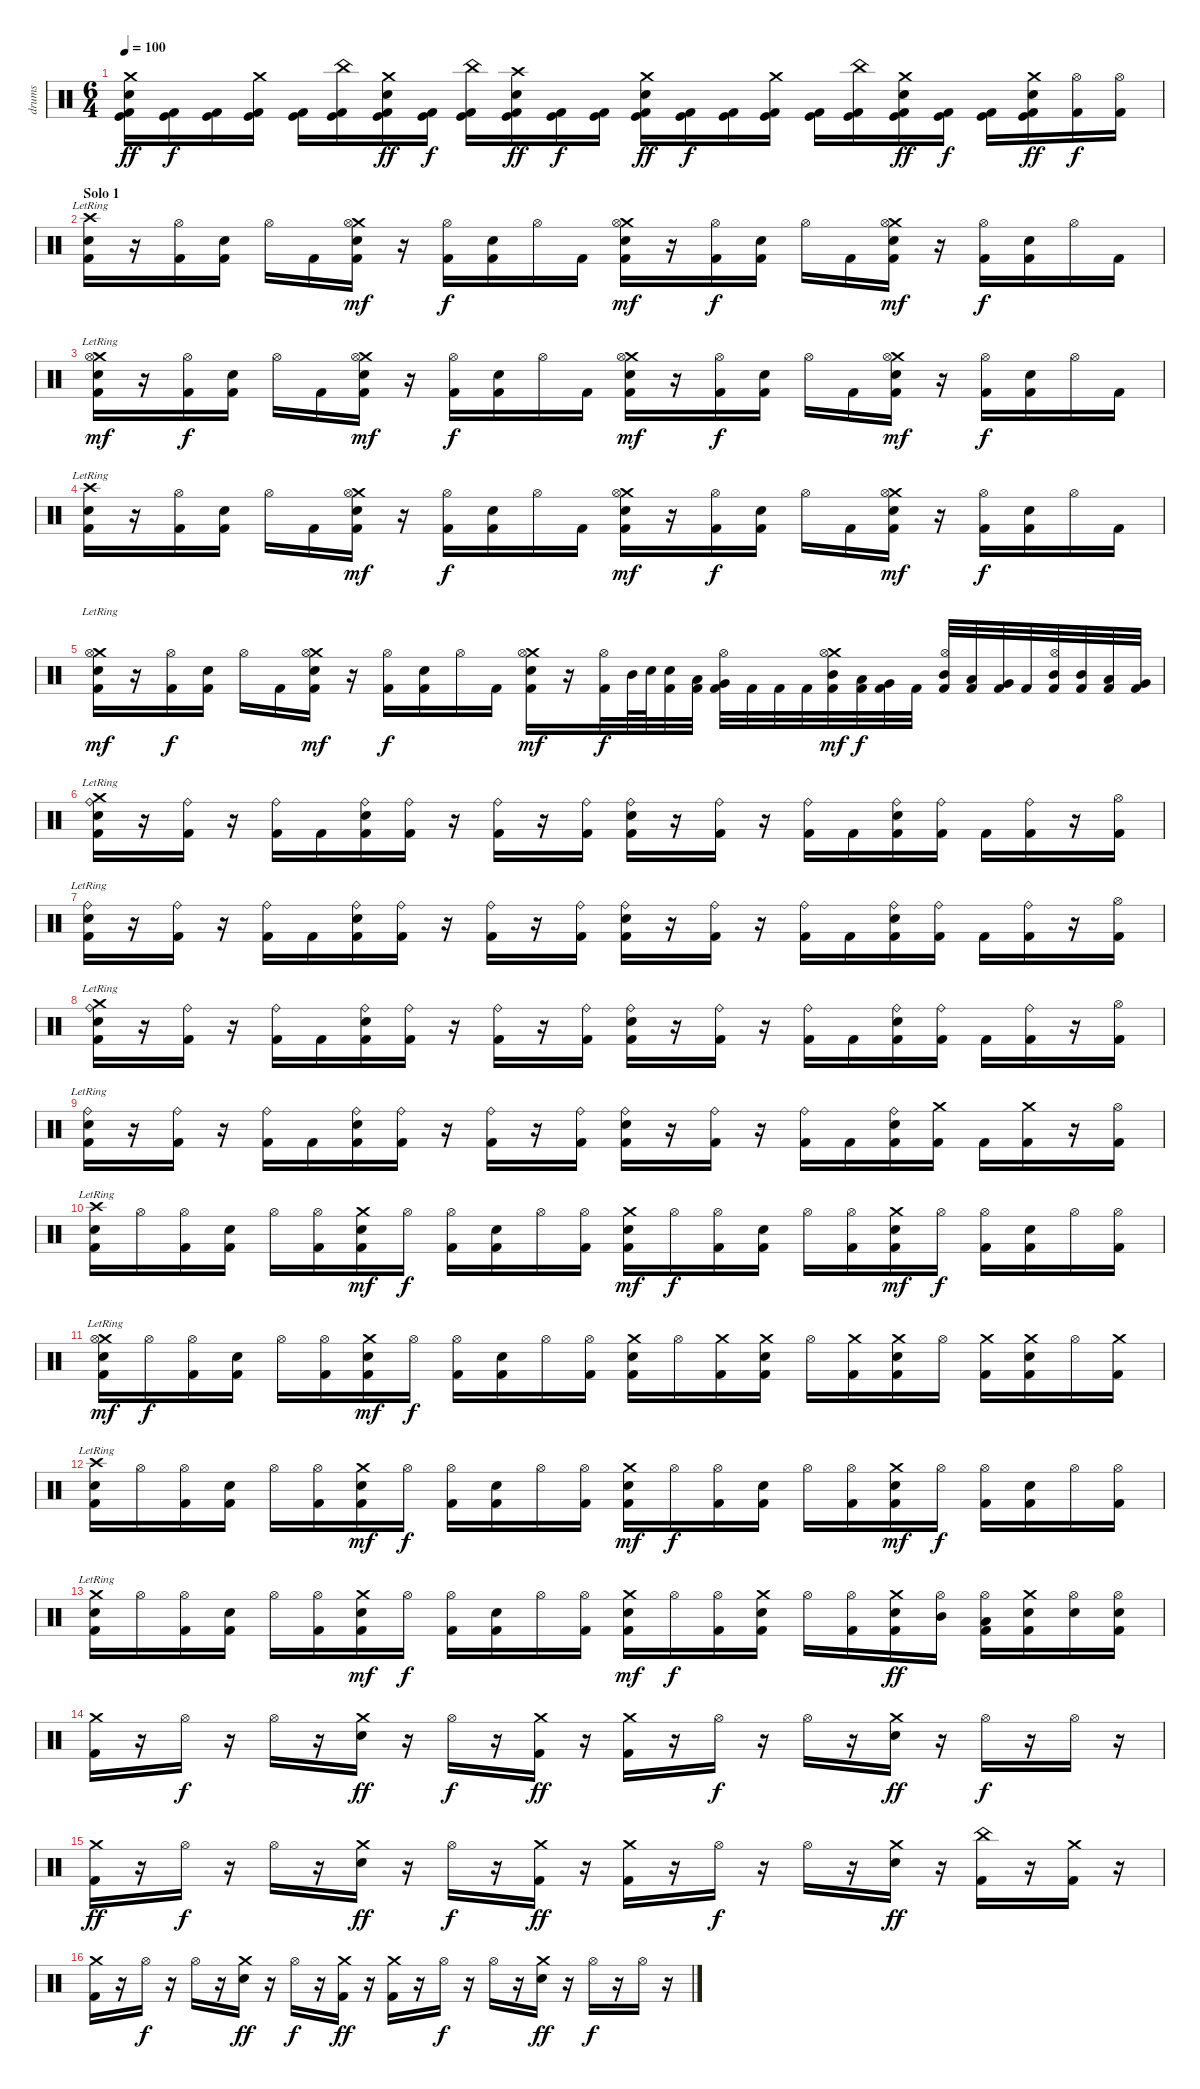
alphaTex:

\track ("drums" "drums") {instrument percussion}
\staff {score}
\articulation defaults
\ts (6 4)
\tempo 100
\clef neutral
\ks c
("Crash medium (hit)" "Electric Snare (hit)" "Kick (hit)" "Kick (hit) 2").16{dy ff} ("Kick (hit)" "Kick (hit) 2").16{dy f} ("Kick (hit)" "Kick (hit) 2").16 ("Crash medium (hit)" "Kick (hit)" "Kick (hit) 2").16 ("Kick (hit)" "Kick (hit) 2").16 ("China (hit)" "Kick (hit)" "Kick (hit) 2").16 ("Crash medium (hit)" "Electric Snare (hit)" "Kick (hit)" "Kick (hit) 2").16{dy ff} ("Kick (hit)" "Kick (hit) 2").16{dy f} ("China (hit)" "Kick (hit)" "Kick (hit) 2").16 ("Crash high (hit)" "Electric Snare (hit)" "Kick (hit)" "Kick (hit) 2").16{dy ff} ("Kick (hit)" "Kick (hit) 2").16{dy f} ("Kick (hit)" "Kick (hit) 2").16 ("Crash medium (hit)" "Electric Snare (hit)" "Kick (hit)" "Kick (hit) 2").16{dy ff} ("Kick (hit)" "Kick (hit) 2").16{dy f} ("Kick (hit)" "Kick (hit) 2").16 ("Crash medium (hit)" "Kick (hit)" "Kick (hit) 2").16 ("Kick (hit)" "Kick (hit) 2").16 ("China (hit)" "Kick (hit)" "Kick (hit) 2").16 ("Crash medium (hit)" "Electric Snare (hit)" "Kick (hit)" "Kick (hit) 2").16{dy ff} ("Kick (hit)" "Kick (hit) 2").16{dy f} ("Kick (hit)" "Kick (hit) 2").16 ("Crash medium (hit)" "Electric Snare (hit)" "Kick (hit)" "Kick (hit) 2").16{dy ff} ("Hi-Hat (open)" "Kick (hit) 2").16{dy f} ("Hi-Hat (open)" "Kick (hit) 2").16 |
\section ("" "Solo 1")
("Crash high (hit)"{lr} "Snare (hit) 2" "Kick (hit) 2").16 r.16 ("Hi-Hat (open)" "Kick (hit) 2").16 ("Electric Snare (hit)" "Kick (hit) 2").16 "Hi-Hat (open)".16 "Kick (hit) 2".16 ("Crash medium (hit)" "Hi-Hat (open)" "Snare (hit) 2" "Kick (hit) 2").16{dy mf} r.16 ("Hi-Hat (open)" "Kick (hit) 2").16{dy f} ("Electric Snare (hit)" "Kick (hit) 2").16 "Hi-Hat (open)".16 "Kick (hit) 2".16 ("Crash medium (hit)" "Hi-Hat (open)" "Snare (hit) 2" "Kick (hit) 2").16{dy mf} r.16 ("Hi-Hat (open)" "Kick (hit) 2").16{dy f} ("Electric Snare (hit)" "Kick (hit) 2").16 "Hi-Hat (open)".16 "Kick (hit) 2".16 ("Crash medium (hit)" "Hi-Hat (open)" "Snare (hit) 2" "Kick (hit) 2").16{dy mf} r.16 ("Hi-Hat (open)" "Kick (hit) 2").16{dy f} ("Electric Snare (hit)" "Kick (hit) 2").16 "Hi-Hat (open)".16 "Kick (hit) 2".16 |
("Crash medium (hit)"{lr} "Hi-Hat (open)" "Snare (hit) 2" "Kick (hit) 2").16{dy mf} r.16 ("Hi-Hat (open)" "Kick (hit) 2").16{dy f} ("Electric Snare (hit)" "Kick (hit) 2").16 "Hi-Hat (open)".16 "Kick (hit) 2".16 ("Crash medium (hit)" "Hi-Hat (open)" "Snare (hit) 2" "Kick (hit) 2").16{dy mf} r.16 ("Hi-Hat (open)" "Kick (hit) 2").16{dy f} ("Electric Snare (hit)" "Kick (hit) 2").16 "Hi-Hat (open)".16 "Kick (hit) 2".16 ("Crash medium (hit)" "Hi-Hat (open)" "Snare (hit) 2" "Kick (hit) 2").16{dy mf} r.16 ("Hi-Hat (open)" "Kick (hit) 2").16{dy f} ("Electric Snare (hit)" "Kick (hit) 2").16 "Hi-Hat (open)".16 "Kick (hit) 2".16 ("Crash medium (hit)" "Hi-Hat (open)" "Snare (hit) 2" "Kick (hit) 2").16{dy mf} r.16 ("Hi-Hat (open)" "Kick (hit) 2").16{dy f} ("Electric Snare (hit)" "Kick (hit) 2").16 "Hi-Hat (open)".16 "Kick (hit) 2".16 |
("Crash high (hit)"{lr} "Snare (hit) 2" "Kick (hit) 2").16 r.16 ("Hi-Hat (open)" "Kick (hit) 2").16 ("Electric Snare (hit)" "Kick (hit) 2").16 "Hi-Hat (open)".16 "Kick (hit) 2".16 ("Crash medium (hit)" "Hi-Hat (open)" "Snare (hit) 2" "Kick (hit) 2").16{dy mf} r.16 ("Hi-Hat (open)" "Kick (hit) 2").16{dy f} ("Electric Snare (hit)" "Kick (hit) 2").16 "Hi-Hat (open)".16 "Kick (hit) 2".16 ("Crash medium (hit)" "Hi-Hat (open)" "Snare (hit) 2" "Kick (hit) 2").16{dy mf} r.16 ("Hi-Hat (open)" "Kick (hit) 2").16{dy f} ("Electric Snare (hit)" "Kick (hit) 2").16 "Hi-Hat (open)".16 "Kick (hit) 2".16 ("Crash medium (hit)" "Hi-Hat (open)" "Snare (hit) 2" "Kick (hit) 2").16{dy mf} r.16 ("Hi-Hat (open)" "Kick (hit) 2").16{dy f} ("Electric Snare (hit)" "Kick (hit) 2").16 "Hi-Hat (open)".16 "Kick (hit) 2".16 |
("Crash medium (hit)"{lr} "Hi-Hat (open)" "Snare (hit) 2" "Kick (hit) 2").16{dy mf} r.16 ("Hi-Hat (open)" "Kick (hit) 2").16{dy f} ("Electric Snare (hit)" "Kick (hit) 2").16 "Hi-Hat (open)".16 "Kick (hit) 2".16 ("Crash medium (hit)" "Hi-Hat (open)" "Snare (hit) 2" "Kick (hit) 2").16{dy mf} r.16 ("Hi-Hat (open)" "Kick (hit) 2").16{dy f} ("Electric Snare (hit)" "Kick (hit) 2").16 "Hi-Hat (open)".16 "Kick (hit) 2".16 ("Crash medium (hit)" "Hi-Hat (open)" "Snare (hit) 2" "Kick (hit) 2").16{dy mf} r.16 ("Hi-Hat (open)" "Kick (hit) 2").32{dy f} "Mid Tom (hit)".64 "Electric Snare (hit)".64 ("Electric Snare (hit)" "Kick (hit) 2").32 ("Low Tom (hit)" "Kick (hit) 2").32 ("Hi-Hat (open)" "Very Low Tom (hit)" "Kick (hit) 2").32 "Kick (hit) 2".32 "Kick (hit) 2".32 "Kick (hit) 2".32 ("Crash medium (hit)" "Hi-Hat (open)" "Mid Tom (hit)" "Kick (hit) 2").32{dy mf} ("Low Tom (hit)" "Kick (hit) 2").32{dy f} ("Very Low Tom (hit)" "Kick (hit) 2").32 "Kick (hit) 2".32 ("Hi-Hat (open)" "Mid Tom (hit)" "Kick (hit) 2").32 ("Low Tom (hit)" "Kick (hit) 2").32 ("Very Low Tom (hit)" "Kick (hit) 2").32 "Kick (hit) 2".32 ("Hi-Hat (open)" "Mid Tom (hit)" "Kick (hit) 2").32 ("Mid Tom (hit)" "Kick (hit) 2").32 ("Low Tom (hit)" "Kick (hit) 2").32 ("Very Low Tom (hit)" "Kick (hit) 2").32 |
("Ride (bell)"{lr} "Crash medium (hit)" "Snare (hit) 2" "Kick (hit) 2").16 r.16 ("Ride (bell)" "Kick (hit) 2").16 r.16 ("Ride (bell)" "Kick (hit) 2").16 "Kick (hit) 2".16 ("Ride (bell)" "Electric Snare (hit)" "Kick (hit) 2").16 ("Ride (bell)" "Kick (hit) 2").16 r.16 ("Ride (bell)" "Kick (hit) 2").16 r.16 ("Ride (bell)" "Kick (hit) 2").16 ("Ride (bell)" "Snare (hit) 2" "Kick (hit) 2").16 r.16 ("Ride (bell)" "Kick (hit) 2").16 r.16 ("Ride (bell)" "Kick (hit) 2").16 "Kick (hit) 2".16 ("Ride (bell)" "Electric Snare (hit)" "Kick (hit) 2").16 ("Ride (bell)" "Kick (hit) 2").16 "Kick (hit) 2".16 ("Ride (bell)" "Kick (hit) 2").16 r.16 ("Hi-Hat (open)" "Kick (hit) 2").16 |
("Ride (bell)"{lr} "Snare (hit) 2" "Kick (hit) 2").16 r.16 ("Ride (bell)" "Kick (hit) 2").16 r.16 ("Ride (bell)" "Kick (hit) 2").16 "Kick (hit) 2".16 ("Ride (bell)" "Electric Snare (hit)" "Kick (hit) 2").16 ("Ride (bell)" "Kick (hit) 2").16 r.16 ("Ride (bell)" "Kick (hit) 2").16 r.16 ("Ride (bell)" "Kick (hit) 2").16 ("Ride (bell)" "Snare (hit) 2" "Kick (hit) 2").16 r.16 ("Ride (bell)" "Kick (hit) 2").16 r.16 ("Ride (bell)" "Kick (hit) 2").16 "Kick (hit) 2".16 ("Ride (bell)" "Electric Snare (hit)" "Kick (hit) 2").16 ("Ride (bell)" "Kick (hit) 2").16 "Kick (hit) 2".16 ("Ride (bell)" "Kick (hit) 2").16 r.16 ("Hi-Hat (open)" "Kick (hit) 2").16 |
("Ride (bell)"{lr} "Crash medium (hit)" "Snare (hit) 2" "Kick (hit) 2").16 r.16 ("Ride (bell)" "Kick (hit) 2").16 r.16 ("Ride (bell)" "Kick (hit) 2").16 "Kick (hit) 2".16 ("Ride (bell)" "Electric Snare (hit)" "Kick (hit) 2").16 ("Ride (bell)" "Kick (hit) 2").16 r.16 ("Ride (bell)" "Kick (hit) 2").16 r.16 ("Ride (bell)" "Kick (hit) 2").16 ("Ride (bell)" "Snare (hit) 2" "Kick (hit) 2").16 r.16 ("Ride (bell)" "Kick (hit) 2").16 r.16 ("Ride (bell)" "Kick (hit) 2").16 "Kick (hit) 2".16 ("Ride (bell)" "Electric Snare (hit)" "Kick (hit) 2").16 ("Ride (bell)" "Kick (hit) 2").16 "Kick (hit) 2".16 ("Ride (bell)" "Kick (hit) 2").16 r.16 ("Hi-Hat (open)" "Kick (hit) 2").16 |
("Ride (bell)"{lr} "Snare (hit) 2" "Kick (hit) 2").16 r.16 ("Ride (bell)" "Kick (hit) 2").16 r.16 ("Ride (bell)" "Kick (hit) 2").16 "Kick (hit) 2".16 ("Ride (bell)" "Electric Snare (hit)" "Kick (hit) 2").16 ("Ride (bell)" "Kick (hit) 2").16 r.16 ("Ride (bell)" "Kick (hit) 2").16 r.16 ("Ride (bell)" "Kick (hit) 2").16 ("Ride (bell)" "Snare (hit) 2" "Kick (hit) 2").16 r.16 ("Ride (bell)" "Kick (hit) 2").16 r.16 ("Ride (bell)" "Kick (hit) 2").16 "Kick (hit) 2".16 ("Ride (bell)" "Electric Snare (hit)" "Kick (hit) 2").16 ("Crash medium (hit)" "Kick (hit) 2").16 "Kick (hit) 2".16 ("Crash medium (hit)" "Kick (hit) 2").16 r.16 ("Hi-Hat (open)" "Kick (hit) 2").16 |
("Crash high (hit)"{lr} "Snare (hit) 2" "Kick (hit) 2").16 "Hi-Hat (open)".16 ("Hi-Hat (open)" "Kick (hit) 2").16 ("Electric Snare (hit)" "Kick (hit) 2").16 "Hi-Hat (open)".16 ("Hi-Hat (open)" "Kick (hit) 2").16 ("Crash medium (hit)" "Snare (hit) 2" "Kick (hit) 2").16{dy mf} "Hi-Hat (open)".16{dy f} ("Hi-Hat (open)" "Kick (hit) 2").16 ("Electric Snare (hit)" "Kick (hit) 2").16 "Hi-Hat (open)".16 ("Hi-Hat (open)" "Kick (hit) 2").16 ("Crash medium (hit)" "Snare (hit) 2" "Kick (hit) 2").16{dy mf} "Hi-Hat (open)".16{dy f} ("Hi-Hat (open)" "Kick (hit) 2").16 ("Electric Snare (hit)" "Kick (hit) 2").16 "Hi-Hat (open)".16 ("Hi-Hat (open)" "Kick (hit) 2").16 ("Crash medium (hit)" "Snare (hit) 2" "Kick (hit) 2").16{dy mf} "Hi-Hat (open)".16{dy f} ("Hi-Hat (open)" "Kick (hit) 2").16 ("Electric Snare (hit)" "Kick (hit) 2").16 "Hi-Hat (open)".16 ("Hi-Hat (open)" "Kick (hit) 2").16 |
("Crash medium (hit)"{lr} "Hi-Hat (open)" "Snare (hit) 2" "Kick (hit) 2").16{dy mf} "Hi-Hat (open)".16{dy f} ("Hi-Hat (open)" "Kick (hit) 2").16 ("Electric Snare (hit)" "Kick (hit) 2").16 "Hi-Hat (open)".16 ("Hi-Hat (open)" "Kick (hit) 2").16 ("Crash medium (hit)" "Snare (hit) 2" "Kick (hit) 2").16{dy mf} "Hi-Hat (open)".16{dy f} ("Hi-Hat (open)" "Kick (hit) 2").16 ("Electric Snare (hit)" "Kick (hit) 2").16 "Hi-Hat (open)".16 ("Hi-Hat (open)" "Kick (hit) 2").16 ("Crash medium (hit)" "Snare (hit) 2" "Kick (hit) 2").16 "Hi-Hat (open)".16 ("Crash medium (hit)" "Kick (hit) 2").16 ("Crash medium (hit)" "Electric Snare (hit)" "Kick (hit) 2").16 "Hi-Hat (open)".16 ("Crash medium (hit)" "Kick (hit) 2").16 ("Crash medium (hit)" "Snare (hit) 2" "Kick (hit) 2").16 "Hi-Hat (open)".16 ("Crash medium (hit)" "Kick (hit) 2").16 ("Crash medium (hit)" "Electric Snare (hit)" "Kick (hit) 2").16 "Hi-Hat (open)".16 ("Crash medium (hit)" "Kick (hit) 2").16 |
("Crash high (hit)"{lr} "Snare (hit) 2" "Kick (hit) 2").16 "Hi-Hat (open)".16 ("Hi-Hat (open)" "Kick (hit) 2").16 ("Electric Snare (hit)" "Kick (hit) 2").16 "Hi-Hat (open)".16 ("Hi-Hat (open)" "Kick (hit) 2").16 ("Crash medium (hit)" "Snare (hit) 2" "Kick (hit) 2").16{dy mf} "Hi-Hat (open)".16{dy f} ("Hi-Hat (open)" "Kick (hit) 2").16 ("Electric Snare (hit)" "Kick (hit) 2").16 "Hi-Hat (open)".16 ("Hi-Hat (open)" "Kick (hit) 2").16 ("Crash medium (hit)" "Snare (hit) 2" "Kick (hit) 2").16{dy mf} "Hi-Hat (open)".16{dy f} ("Hi-Hat (open)" "Kick (hit) 2").16 ("Electric Snare (hit)" "Kick (hit) 2").16 "Hi-Hat (open)".16 ("Hi-Hat (open)" "Kick (hit) 2").16 ("Crash medium (hit)" "Snare (hit) 2" "Kick (hit) 2").16{dy mf} "Hi-Hat (open)".16{dy f} ("Hi-Hat (open)" "Kick (hit) 2").16 ("Electric Snare (hit)" "Kick (hit) 2").16 "Hi-Hat (open)".16 ("Hi-Hat (open)" "Kick (hit) 2").16 |
("Crash medium (hit)"{lr} "Snare (hit) 2" "Kick (hit) 2").16 "Hi-Hat (open)".16 ("Hi-Hat (open)" "Kick (hit) 2").16 ("Electric Snare (hit)" "Kick (hit) 2").16 "Hi-Hat (open)".16 ("Hi-Hat (open)" "Kick (hit) 2").16 ("Crash medium (hit)" "Snare (hit) 2" "Kick (hit) 2").16{dy mf} "Hi-Hat (open)".16{dy f} ("Hi-Hat (open)" "Kick (hit) 2").16 ("Electric Snare (hit)" "Kick (hit) 2").16 "Hi-Hat (open)".16 ("Hi-Hat (open)" "Kick (hit) 2").16 ("Crash medium (hit)" "Snare (hit) 2" "Kick (hit) 2").16{dy mf} "Hi-Hat (open)".16{dy f} ("Hi-Hat (open)" "Kick (hit) 2").16 ("Crash medium (hit)" "Electric Snare (hit)" "Kick (hit) 2").16 "Hi-Hat (open)".16 ("Hi-Hat (open)" "Kick (hit) 2").16 ("Crash medium (hit)" "Snare (hit) 2" "Kick (hit) 2").16{dy ff} ("Hi-Hat (open)" "Mid Tom (hit)").16 ("Hi-Hat (open)" "Low Tom (hit)" "Kick (hit) 2").16 ("Crash medium (hit)" "Electric Snare (hit)" "Kick (hit) 2").16 ("Hi-Hat (open)" "Electric Snare (hit)").16 ("Hi-Hat (open)" "Electric Snare (hit)" "Kick (hit) 2").16 |
("Crash medium (hit)" "Kick (hit) 2").16 r.16 "Hi-Hat (open)".16{dy f} r.16 "Hi-Hat (open)".16 r.16 ("Crash medium (hit)" "Electric Snare (hit)").16{dy ff} r.16 "Hi-Hat (open)".16{dy f} r.16 ("Crash medium (hit)" "Kick (hit) 2").16{dy ff} r.16 ("Crash medium (hit)" "Kick (hit) 2").16 r.16 "Hi-Hat (open)".16{dy f} r.16 "Hi-Hat (open)".16 r.16 ("Crash medium (hit)" "Electric Snare (hit)").16{dy ff} r.16 "Hi-Hat (open)".16{dy f} r.16 "Hi-Hat (open)".16 r.16 |
("Crash medium (hit)" "Kick (hit) 2").16{dy ff} r.16 "Hi-Hat (open)".16{dy f} r.16 "Hi-Hat (open)".16 r.16 ("Crash medium (hit)" "Electric Snare (hit)").16{dy ff} r.16 "Hi-Hat (open)".16{dy f} r.16 ("Crash medium (hit)" "Kick (hit) 2").16{dy ff} r.16 ("Crash medium (hit)" "Kick (hit) 2").16 r.16 "Hi-Hat (open)".16{dy f} r.16 "Hi-Hat (open)".16 r.16 ("Crash medium (hit)" "Electric Snare (hit)").16{dy ff} r.16 ("China (hit)" "Kick (hit) 2").16 r.16 ("Crash medium (hit)" "Kick (hit) 2").16 r.16 |
("Crash medium (hit)" "Kick (hit) 2").16 r.16 "Hi-Hat (open)".16{dy f} r.16 "Hi-Hat (open)".16 r.16 ("Crash medium (hit)" "Electric Snare (hit)").16{dy ff} r.16 "Hi-Hat (open)".16{dy f} r.16 ("Crash medium (hit)" "Kick (hit) 2").16{dy ff} r.16 ("Crash medium (hit)" "Kick (hit) 2").16 r.16 "Hi-Hat (open)".16{dy f} r.16 "Hi-Hat (open)".16 r.16 ("Crash medium (hit)" "Electric Snare (hit)").16{dy ff} r.16 "Hi-Hat (open)".16{dy f} r.16 "Hi-Hat (open)".16 r.16
